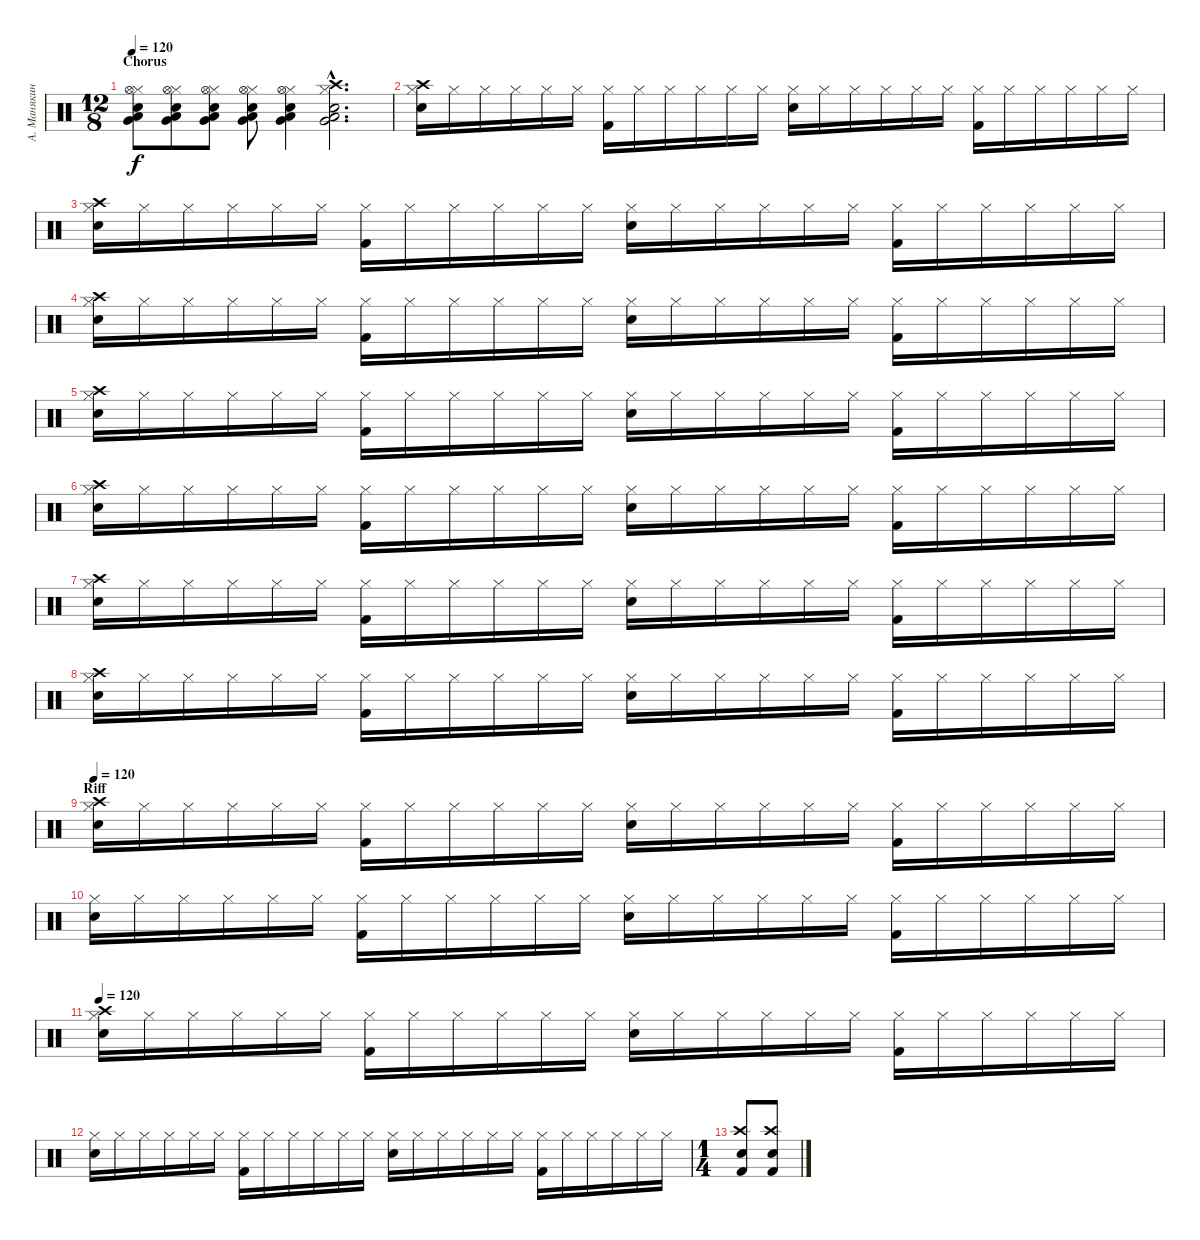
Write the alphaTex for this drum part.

\track ("А. Манякин" "А. Манякин") {instrument percussion}
\staff {score}
\articulation defaults
\ts (12 8)
\section ("" "Chorus")
\tempo 120
\clef neutral
\ks c
("Hi-Hat (closed)" "Snare (hit) 2" "Low Tom (hit)" "Very Low Tom (hit)" "Hi-Hat (open)").8{dy f} ("Hi-Hat (closed)" "Snare (hit) 2" "Low Tom (hit)" "Very Low Tom (hit)" "Hi-Hat (open)").8 ("Hi-Hat (closed)" "Snare (hit) 2" "Very Low Tom (hit)" "Low Tom (hit)" "Hi-Hat (open)").8 ("Hi-Hat (closed)" "Snare (hit) 2" "Very Low Tom (hit)" "Low Tom (hit)" "Hi-Hat (open)").8 ("Hi-Hat (closed)" "Snare (hit) 2" "Low Tom (hit)" "Very Low Tom (hit)" "Hi-Hat (open)").4 ("Hi-Hat (closed)"{hac} "Snare (hit) 2"{hac} "Low Tom (hit)"{hac} "Very Low Tom (hit)"{hac} "Crash high (hit)"{hac}).2{d} |
("Hi-Hat (closed)" "Snare (hit) 2" "Crash high (hit)").16 "Hi-Hat (closed)".16 "Hi-Hat (closed)".16 "Hi-Hat (closed)".16 "Hi-Hat (closed)".16 "Hi-Hat (closed)".16 ("Hi-Hat (closed)" "Kick (hit) 2").16 "Hi-Hat (closed)".16 "Hi-Hat (closed)".16 "Hi-Hat (closed)".16 "Hi-Hat (closed)".16 "Hi-Hat (closed)".16 ("Hi-Hat (closed)" "Snare (hit) 2").16 "Hi-Hat (closed)".16 "Hi-Hat (closed)".16 "Hi-Hat (closed)".16 "Hi-Hat (closed)".16 "Hi-Hat (closed)".16 ("Hi-Hat (closed)" "Kick (hit) 2").16 "Hi-Hat (closed)".16 "Hi-Hat (closed)".16 "Hi-Hat (closed)".16 "Hi-Hat (closed)".16 "Hi-Hat (closed)".16 |
("Hi-Hat (closed)" "Snare (hit) 2" "Crash high (hit)").16 "Hi-Hat (closed)".16 "Hi-Hat (closed)".16 "Hi-Hat (closed)".16 "Hi-Hat (closed)".16 "Hi-Hat (closed)".16 ("Hi-Hat (closed)" "Kick (hit) 2").16 "Hi-Hat (closed)".16 "Hi-Hat (closed)".16 "Hi-Hat (closed)".16 "Hi-Hat (closed)".16 "Hi-Hat (closed)".16 ("Hi-Hat (closed)" "Snare (hit) 2").16 "Hi-Hat (closed)".16 "Hi-Hat (closed)".16 "Hi-Hat (closed)".16 "Hi-Hat (closed)".16 "Hi-Hat (closed)".16 ("Hi-Hat (closed)" "Kick (hit) 2").16 "Hi-Hat (closed)".16 "Hi-Hat (closed)".16 "Hi-Hat (closed)".16 "Hi-Hat (closed)".16 "Hi-Hat (closed)".16 |
("Hi-Hat (closed)" "Snare (hit) 2" "Crash high (hit)").16 "Hi-Hat (closed)".16 "Hi-Hat (closed)".16 "Hi-Hat (closed)".16 "Hi-Hat (closed)".16 "Hi-Hat (closed)".16 ("Hi-Hat (closed)" "Kick (hit) 2").16 "Hi-Hat (closed)".16 "Hi-Hat (closed)".16 "Hi-Hat (closed)".16 "Hi-Hat (closed)".16 "Hi-Hat (closed)".16 ("Hi-Hat (closed)" "Snare (hit) 2").16 "Hi-Hat (closed)".16 "Hi-Hat (closed)".16 "Hi-Hat (closed)".16 "Hi-Hat (closed)".16 "Hi-Hat (closed)".16 ("Hi-Hat (closed)" "Kick (hit) 2").16 "Hi-Hat (closed)".16 "Hi-Hat (closed)".16 "Hi-Hat (closed)".16 "Hi-Hat (closed)".16 "Hi-Hat (closed)".16 |
("Hi-Hat (closed)" "Snare (hit) 2" "Crash high (hit)").16 "Hi-Hat (closed)".16 "Hi-Hat (closed)".16 "Hi-Hat (closed)".16 "Hi-Hat (closed)".16 "Hi-Hat (closed)".16 ("Hi-Hat (closed)" "Kick (hit) 2").16 "Hi-Hat (closed)".16 "Hi-Hat (closed)".16 "Hi-Hat (closed)".16 "Hi-Hat (closed)".16 "Hi-Hat (closed)".16 ("Hi-Hat (closed)" "Snare (hit) 2").16 "Hi-Hat (closed)".16 "Hi-Hat (closed)".16 "Hi-Hat (closed)".16 "Hi-Hat (closed)".16 "Hi-Hat (closed)".16 ("Hi-Hat (closed)" "Kick (hit) 2").16 "Hi-Hat (closed)".16 "Hi-Hat (closed)".16 "Hi-Hat (closed)".16 "Hi-Hat (closed)".16 "Hi-Hat (closed)".16 |
("Hi-Hat (closed)" "Snare (hit) 2" "Crash high (hit)").16 "Hi-Hat (closed)".16 "Hi-Hat (closed)".16 "Hi-Hat (closed)".16 "Hi-Hat (closed)".16 "Hi-Hat (closed)".16 ("Hi-Hat (closed)" "Kick (hit) 2").16 "Hi-Hat (closed)".16 "Hi-Hat (closed)".16 "Hi-Hat (closed)".16 "Hi-Hat (closed)".16 "Hi-Hat (closed)".16 ("Hi-Hat (closed)" "Snare (hit) 2").16 "Hi-Hat (closed)".16 "Hi-Hat (closed)".16 "Hi-Hat (closed)".16 "Hi-Hat (closed)".16 "Hi-Hat (closed)".16 ("Hi-Hat (closed)" "Kick (hit) 2").16 "Hi-Hat (closed)".16 "Hi-Hat (closed)".16 "Hi-Hat (closed)".16 "Hi-Hat (closed)".16 "Hi-Hat (closed)".16 |
("Hi-Hat (closed)" "Snare (hit) 2" "Crash high (hit)").16 "Hi-Hat (closed)".16 "Hi-Hat (closed)".16 "Hi-Hat (closed)".16 "Hi-Hat (closed)".16 "Hi-Hat (closed)".16 ("Hi-Hat (closed)" "Kick (hit) 2").16 "Hi-Hat (closed)".16 "Hi-Hat (closed)".16 "Hi-Hat (closed)".16 "Hi-Hat (closed)".16 "Hi-Hat (closed)".16 ("Hi-Hat (closed)" "Snare (hit) 2").16 "Hi-Hat (closed)".16 "Hi-Hat (closed)".16 "Hi-Hat (closed)".16 "Hi-Hat (closed)".16 "Hi-Hat (closed)".16 ("Hi-Hat (closed)" "Kick (hit) 2").16 "Hi-Hat (closed)".16 "Hi-Hat (closed)".16 "Hi-Hat (closed)".16 "Hi-Hat (closed)".16 "Hi-Hat (closed)".16 |
("Hi-Hat (closed)" "Snare (hit) 2" "Crash high (hit)").16 "Hi-Hat (closed)".16 "Hi-Hat (closed)".16 "Hi-Hat (closed)".16 "Hi-Hat (closed)".16 "Hi-Hat (closed)".16 ("Hi-Hat (closed)" "Kick (hit) 2").16 "Hi-Hat (closed)".16 "Hi-Hat (closed)".16 "Hi-Hat (closed)".16 "Hi-Hat (closed)".16 "Hi-Hat (closed)".16 ("Hi-Hat (closed)" "Snare (hit) 2").16 "Hi-Hat (closed)".16 "Hi-Hat (closed)".16 "Hi-Hat (closed)".16 "Hi-Hat (closed)".16 "Hi-Hat (closed)".16 ("Hi-Hat (closed)" "Kick (hit) 2").16 "Hi-Hat (closed)".16 "Hi-Hat (closed)".16 "Hi-Hat (closed)".16 "Hi-Hat (closed)".16 "Hi-Hat (closed)".16 |
\section ("" "Riff")
\tempo 120
("Hi-Hat (closed)" "Snare (hit) 2" "Crash high (hit)").16 "Hi-Hat (closed)".16 "Hi-Hat (closed)".16 "Hi-Hat (closed)".16 "Hi-Hat (closed)".16 "Hi-Hat (closed)".16 ("Hi-Hat (closed)" "Kick (hit) 2").16 "Hi-Hat (closed)".16 "Hi-Hat (closed)".16 "Hi-Hat (closed)".16 "Hi-Hat (closed)".16 "Hi-Hat (closed)".16 ("Hi-Hat (closed)" "Snare (hit) 2").16 "Hi-Hat (closed)".16 "Hi-Hat (closed)".16 "Hi-Hat (closed)".16 "Hi-Hat (closed)".16 "Hi-Hat (closed)".16 ("Hi-Hat (closed)" "Kick (hit) 2").16 "Hi-Hat (closed)".16 "Hi-Hat (closed)".16 "Hi-Hat (closed)".16 "Hi-Hat (closed)".16 "Hi-Hat (closed)".16 |
("Hi-Hat (closed)" "Snare (hit) 2").16 "Hi-Hat (closed)".16 "Hi-Hat (closed)".16 "Hi-Hat (closed)".16 "Hi-Hat (closed)".16 "Hi-Hat (closed)".16 ("Hi-Hat (closed)" "Kick (hit) 2").16 "Hi-Hat (closed)".16 "Hi-Hat (closed)".16 "Hi-Hat (closed)".16 "Hi-Hat (closed)".16 "Hi-Hat (closed)".16 ("Hi-Hat (closed)" "Snare (hit) 2").16 "Hi-Hat (closed)".16 "Hi-Hat (closed)".16 "Hi-Hat (closed)".16 "Hi-Hat (closed)".16 "Hi-Hat (closed)".16 ("Hi-Hat (closed)" "Kick (hit) 2").16 "Hi-Hat (closed)".16 "Hi-Hat (closed)".16 "Hi-Hat (closed)".16 "Hi-Hat (closed)".16 "Hi-Hat (closed)".16 |
\tempo 120
("Hi-Hat (closed)" "Snare (hit) 2" "Crash high (hit)").16 "Hi-Hat (closed)".16 "Hi-Hat (closed)".16 "Hi-Hat (closed)".16 "Hi-Hat (closed)".16 "Hi-Hat (closed)".16 ("Hi-Hat (closed)" "Kick (hit) 2").16 "Hi-Hat (closed)".16 "Hi-Hat (closed)".16 "Hi-Hat (closed)".16 "Hi-Hat (closed)".16 "Hi-Hat (closed)".16 ("Hi-Hat (closed)" "Snare (hit) 2").16 "Hi-Hat (closed)".16 "Hi-Hat (closed)".16 "Hi-Hat (closed)".16 "Hi-Hat (closed)".16 "Hi-Hat (closed)".16 ("Hi-Hat (closed)" "Kick (hit) 2").16 "Hi-Hat (closed)".16 "Hi-Hat (closed)".16 "Hi-Hat (closed)".16 "Hi-Hat (closed)".16 "Hi-Hat (closed)".16 |
("Hi-Hat (closed)" "Snare (hit) 2").16 "Hi-Hat (closed)".16 "Hi-Hat (closed)".16 "Hi-Hat (closed)".16 "Hi-Hat (closed)".16 "Hi-Hat (closed)".16 ("Hi-Hat (closed)" "Kick (hit) 2").16 "Hi-Hat (closed)".16 "Hi-Hat (closed)".16 "Hi-Hat (closed)".16 "Hi-Hat (closed)".16 "Hi-Hat (closed)".16 ("Hi-Hat (closed)" "Snare (hit) 2").16 "Hi-Hat (closed)".16 "Hi-Hat (closed)".16 "Hi-Hat (closed)".16 "Hi-Hat (closed)".16 "Hi-Hat (closed)".16 ("Hi-Hat (closed)" "Kick (hit) 2").16 "Hi-Hat (closed)".16 "Hi-Hat (closed)".16 "Hi-Hat (closed)".16 "Hi-Hat (closed)".16 "Hi-Hat (closed)".16 |
\ts (1 4)
("Snare (hit) 2" "Kick (hit) 2" "Crash high (hit)").8 ("Snare (hit) 2" "Kick (hit) 2" "Crash high (hit)").8
